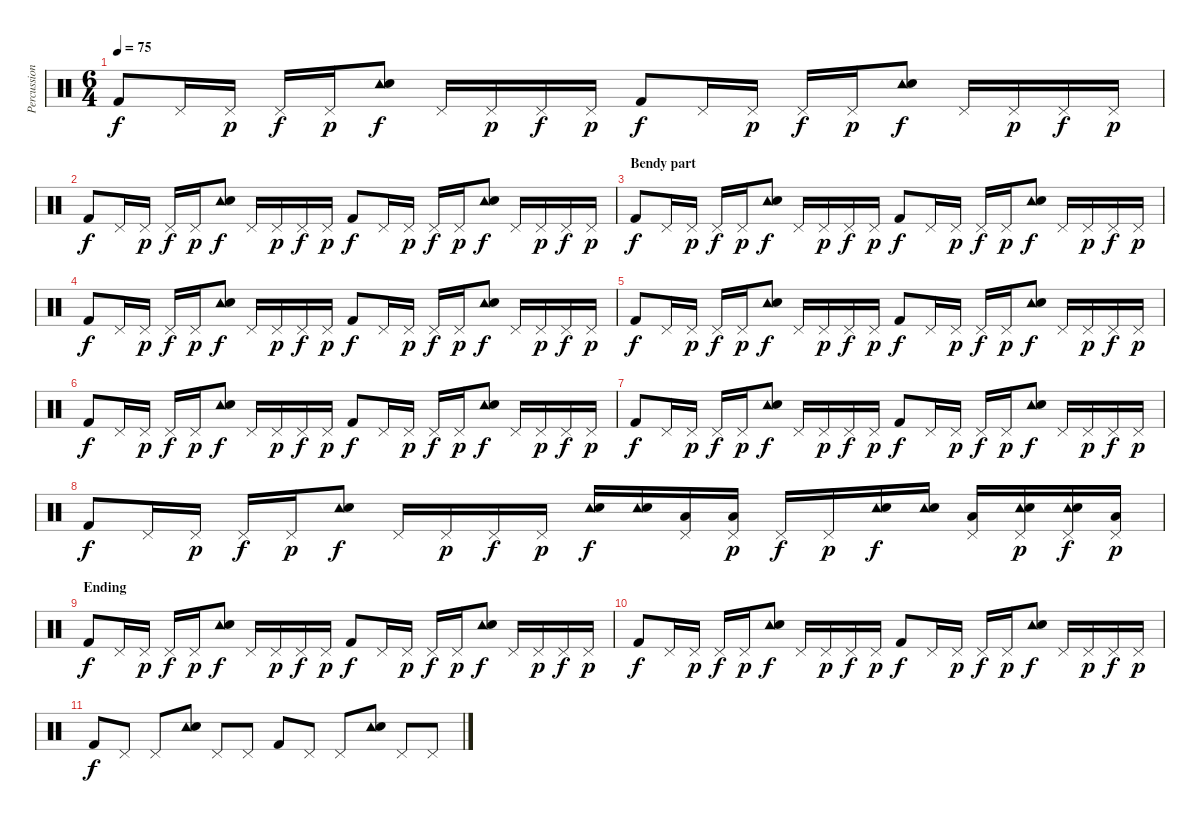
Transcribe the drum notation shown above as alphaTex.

\track ("Percussion" "Percussion") {instrument percussion}
\staff {score}
\articulation defaults
\ts (6 4)
\tempo 75
\clef neutral
\ks c "Kick (hit) 2".8{dy f} "Pedal Hi-Hat (hit)".16 "Pedal Hi-Hat (hit)".16{dy p} "Pedal Hi-Hat (hit)".16{dy f} "Pedal Hi-Hat (hit)".16{dy p}
("Tambourine (hit)" "Snare (hit) 2").8{dy f} "Pedal Hi-Hat (hit)".16 "Pedal Hi-Hat (hit)".16{dy p} "Pedal Hi-Hat (hit)".16{dy f} "Pedal Hi-Hat (hit)".16{dy p} "Kick (hit) 2".8{dy f} "Pedal Hi-Hat (hit)".16 "Pedal Hi-Hat (hit)".16{dy p} "Pedal Hi-Hat (hit)".16{dy f} "Pedal Hi-Hat (hit)".16{dy p} ("Tambourine (hit)" "Snare (hit) 2").8{dy f} "Pedal Hi-Hat (hit)".16 "Pedal Hi-Hat (hit)".16{dy p} "Pedal Hi-Hat (hit)".16{dy f} "Pedal Hi-Hat (hit)".16{dy p} |
"Kick (hit) 2".8{dy f} "Pedal Hi-Hat (hit)".16 "Pedal Hi-Hat (hit)".16{dy p} "Pedal Hi-Hat (hit)".16{dy f} "Pedal Hi-Hat (hit)".16{dy p} ("Tambourine (hit)" "Snare (hit) 2").8{dy f} "Pedal Hi-Hat (hit)".16 "Pedal Hi-Hat (hit)".16{dy p} "Pedal Hi-Hat (hit)".16{dy f} "Pedal Hi-Hat (hit)".16{dy p} "Kick (hit) 2".8{dy f} "Pedal Hi-Hat (hit)".16 "Pedal Hi-Hat (hit)".16{dy p} "Pedal Hi-Hat (hit)".16{dy f} "Pedal Hi-Hat (hit)".16{dy p} ("Tambourine (hit)" "Snare (hit) 2").8{dy f} "Pedal Hi-Hat (hit)".16 "Pedal Hi-Hat (hit)".16{dy p} "Pedal Hi-Hat (hit)".16{dy f} "Pedal Hi-Hat (hit)".16{dy p} |
\section ("" "Bendy part")
"Kick (hit) 2".8{dy f} "Pedal Hi-Hat (hit)".16 "Pedal Hi-Hat (hit)".16{dy p} "Pedal Hi-Hat (hit)".16{dy f} "Pedal Hi-Hat (hit)".16{dy p} ("Tambourine (hit)" "Snare (hit) 2").8{dy f} "Pedal Hi-Hat (hit)".16 "Pedal Hi-Hat (hit)".16{dy p} "Pedal Hi-Hat (hit)".16{dy f} "Pedal Hi-Hat (hit)".16{dy p} "Kick (hit) 2".8{dy f} "Pedal Hi-Hat (hit)".16 "Pedal Hi-Hat (hit)".16{dy p} "Pedal Hi-Hat (hit)".16{dy f} "Pedal Hi-Hat (hit)".16{dy p} ("Tambourine (hit)" "Snare (hit) 2").8{dy f} "Pedal Hi-Hat (hit)".16 "Pedal Hi-Hat (hit)".16{dy p} "Pedal Hi-Hat (hit)".16{dy f} "Pedal Hi-Hat (hit)".16{dy p} |
"Kick (hit) 2".8{dy f} "Pedal Hi-Hat (hit)".16 "Pedal Hi-Hat (hit)".16{dy p} "Pedal Hi-Hat (hit)".16{dy f} "Pedal Hi-Hat (hit)".16{dy p} ("Tambourine (hit)" "Snare (hit) 2").8{dy f} "Pedal Hi-Hat (hit)".16 "Pedal Hi-Hat (hit)".16{dy p} "Pedal Hi-Hat (hit)".16{dy f} "Pedal Hi-Hat (hit)".16{dy p} "Kick (hit) 2".8{dy f} "Pedal Hi-Hat (hit)".16 "Pedal Hi-Hat (hit)".16{dy p} "Pedal Hi-Hat (hit)".16{dy f} "Pedal Hi-Hat (hit)".16{dy p} ("Tambourine (hit)" "Snare (hit) 2").8{dy f} "Pedal Hi-Hat (hit)".16 "Pedal Hi-Hat (hit)".16{dy p} "Pedal Hi-Hat (hit)".16{dy f} "Pedal Hi-Hat (hit)".16{dy p} |
"Kick (hit) 2".8{dy f} "Pedal Hi-Hat (hit)".16 "Pedal Hi-Hat (hit)".16{dy p} "Pedal Hi-Hat (hit)".16{dy f} "Pedal Hi-Hat (hit)".16{dy p} ("Tambourine (hit)" "Snare (hit) 2").8{dy f} "Pedal Hi-Hat (hit)".16 "Pedal Hi-Hat (hit)".16{dy p} "Pedal Hi-Hat (hit)".16{dy f} "Pedal Hi-Hat (hit)".16{dy p} "Kick (hit) 2".8{dy f} "Pedal Hi-Hat (hit)".16 "Pedal Hi-Hat (hit)".16{dy p} "Pedal Hi-Hat (hit)".16{dy f} "Pedal Hi-Hat (hit)".16{dy p} ("Tambourine (hit)" "Snare (hit) 2").8{dy f} "Pedal Hi-Hat (hit)".16 "Pedal Hi-Hat (hit)".16{dy p} "Pedal Hi-Hat (hit)".16{dy f} "Pedal Hi-Hat (hit)".16{dy p} |
"Kick (hit) 2".8{dy f} "Pedal Hi-Hat (hit)".16 "Pedal Hi-Hat (hit)".16{dy p} "Pedal Hi-Hat (hit)".16{dy f} "Pedal Hi-Hat (hit)".16{dy p} ("Tambourine (hit)" "Snare (hit) 2").8{dy f} "Pedal Hi-Hat (hit)".16 "Pedal Hi-Hat (hit)".16{dy p} "Pedal Hi-Hat (hit)".16{dy f} "Pedal Hi-Hat (hit)".16{dy p} "Kick (hit) 2".8{dy f} "Pedal Hi-Hat (hit)".16 "Pedal Hi-Hat (hit)".16{dy p} "Pedal Hi-Hat (hit)".16{dy f} "Pedal Hi-Hat (hit)".16{dy p} ("Tambourine (hit)" "Snare (hit) 2").8{dy f} "Pedal Hi-Hat (hit)".16 "Pedal Hi-Hat (hit)".16{dy p} "Pedal Hi-Hat (hit)".16{dy f} "Pedal Hi-Hat (hit)".16{dy p} |
"Kick (hit) 2".8{dy f} "Pedal Hi-Hat (hit)".16 "Pedal Hi-Hat (hit)".16{dy p} "Pedal Hi-Hat (hit)".16{dy f} "Pedal Hi-Hat (hit)".16{dy p} ("Tambourine (hit)" "Snare (hit) 2").8{dy f} "Pedal Hi-Hat (hit)".16 "Pedal Hi-Hat (hit)".16{dy p} "Pedal Hi-Hat (hit)".16{dy f} "Pedal Hi-Hat (hit)".16{dy p} "Kick (hit) 2".8{dy f} "Pedal Hi-Hat (hit)".16 "Pedal Hi-Hat (hit)".16{dy p} "Pedal Hi-Hat (hit)".16{dy f} "Pedal Hi-Hat (hit)".16{dy p} ("Tambourine (hit)" "Snare (hit) 2").8{dy f} "Pedal Hi-Hat (hit)".16 "Pedal Hi-Hat (hit)".16{dy p} "Pedal Hi-Hat (hit)".16{dy f} "Pedal Hi-Hat (hit)".16{dy p} |
"Kick (hit) 2".8{dy f} "Pedal Hi-Hat (hit)".16 "Pedal Hi-Hat (hit)".16{dy p} "Pedal Hi-Hat (hit)".16{dy f} "Pedal Hi-Hat (hit)".16{dy p} ("Tambourine (hit)" "Snare (hit) 2").8{dy f} "Pedal Hi-Hat (hit)".16 "Pedal Hi-Hat (hit)".16{dy p} "Pedal Hi-Hat (hit)".16{dy f} "Pedal Hi-Hat (hit)".16{dy p} ("Tambourine (hit)" "Snare (hit) 2").16{dy f} ("Tambourine (hit)" "Snare (hit) 2").16 ("Pedal Hi-Hat (hit)" "Low Floor Tom (hit)").16 ("Pedal Hi-Hat (hit)" "Low Floor Tom (hit)").16{dy p} "Pedal Hi-Hat (hit)".16{dy f} "Pedal Hi-Hat (hit)".16{dy p} ("Tambourine (hit)" "Snare (hit) 2").16{dy f} ("Tambourine (hit)" "Snare (hit) 2").16 ("Pedal Hi-Hat (hit)" "Low Floor Tom (hit)").16 ("Pedal Hi-Hat (hit)" "Tambourine (hit)" "Snare (hit) 2").16{dy p} ("Pedal Hi-Hat (hit)" "Tambourine (hit)" "Snare (hit) 2").16{dy f} ("Pedal Hi-Hat (hit)" "Low Floor Tom (hit)").16{dy p} |
\section ("" "Ending")
"Kick (hit) 2".8{dy f} "Pedal Hi-Hat (hit)".16 "Pedal Hi-Hat (hit)".16{dy p} "Pedal Hi-Hat (hit)".16{dy f} "Pedal Hi-Hat (hit)".16{dy p} ("Tambourine (hit)" "Snare (hit) 2").8{dy f} "Pedal Hi-Hat (hit)".16 "Pedal Hi-Hat (hit)".16{dy p} "Pedal Hi-Hat (hit)".16{dy f} "Pedal Hi-Hat (hit)".16{dy p} "Kick (hit) 2".8{dy f} "Pedal Hi-Hat (hit)".16 "Pedal Hi-Hat (hit)".16{dy p} "Pedal Hi-Hat (hit)".16{dy f} "Pedal Hi-Hat (hit)".16{dy p} ("Tambourine (hit)" "Snare (hit) 2").8{dy f} "Pedal Hi-Hat (hit)".16 "Pedal Hi-Hat (hit)".16{dy p} "Pedal Hi-Hat (hit)".16{dy f} "Pedal Hi-Hat (hit)".16{dy p} |
"Kick (hit) 2".8{dy f} "Pedal Hi-Hat (hit)".16 "Pedal Hi-Hat (hit)".16{dy p} "Pedal Hi-Hat (hit)".16{dy f} "Pedal Hi-Hat (hit)".16{dy p} ("Tambourine (hit)" "Snare (hit) 2").8{dy f} "Pedal Hi-Hat (hit)".16 "Pedal Hi-Hat (hit)".16{dy p} "Pedal Hi-Hat (hit)".16{dy f} "Pedal Hi-Hat (hit)".16{dy p} "Kick (hit) 2".8{dy f} "Pedal Hi-Hat (hit)".16 "Pedal Hi-Hat (hit)".16{dy p} "Pedal Hi-Hat (hit)".16{dy f} "Pedal Hi-Hat (hit)".16{dy p} ("Tambourine (hit)" "Snare (hit) 2").8{dy f} "Pedal Hi-Hat (hit)".16 "Pedal Hi-Hat (hit)".16{dy p} "Pedal Hi-Hat (hit)".16{dy f} "Pedal Hi-Hat (hit)".16{dy p} |
"Kick (hit) 2".8{dy f} "Pedal Hi-Hat (hit)".8 "Pedal Hi-Hat (hit)".8 ("Tambourine (hit)" "Snare (hit) 2").8 "Pedal Hi-Hat (hit)".8 "Pedal Hi-Hat (hit)".8 "Kick (hit) 2".8 "Pedal Hi-Hat (hit)".8 "Pedal Hi-Hat (hit)".8 ("Tambourine (hit)" "Snare (hit) 2").8 "Pedal Hi-Hat (hit)".8 "Pedal Hi-Hat (hit)".8
